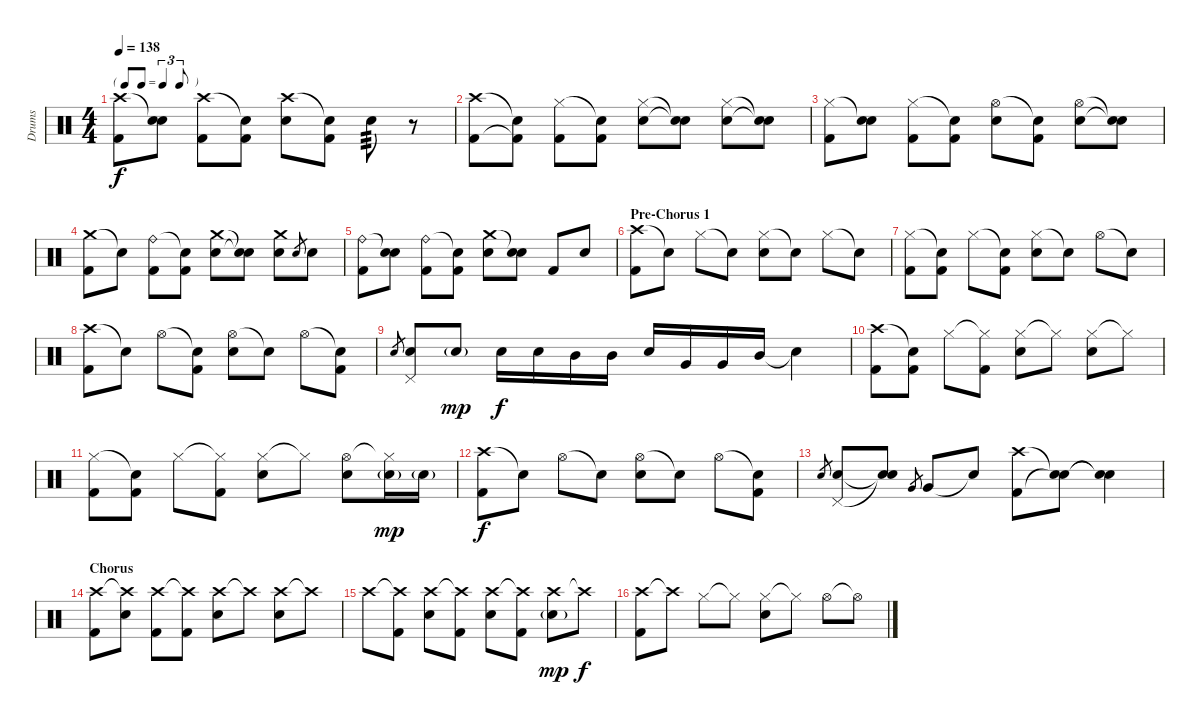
\track ("Drums" "Drums") {instrument percussion}
\staff {score}
\articulation defaults
\ts (4 4)
\tf triplet8th
\tempo 138
\clef neutral
\ks c
("Crash high (hit)" "Kick (hit) 2").8{dy f} ("Snare (hit)"{t} "Electric Snare (hit)").8 ("Crash high (hit)" "Kick (hit) 2").8 ("Snare (hit)"{t} "Kick (hit) 2").8 ("Crash high (hit)" "Electric Snare (hit)").8 ("Snare (hit)"{t} "Kick (hit) 2").8 "Electric Snare (hit)".8{tp 3} r.8 |
("Crash high (hit)" "Kick (hit) 2").8 ("Snare (hit)"{t} "Kick (hit) 2"{t}).8 ("Hi-Hat (closed)" "Kick (hit) 2").8 ("Snare (hit)"{t} "Kick (hit) 2").8 ("Hi-Hat (closed)" "Electric Snare (hit)").8 ("Snare (hit)"{t} "Snare (hit)"{t}).8 ("Hi-Hat (closed)" "Electric Snare (hit)").8 ("Snare (hit)"{t} "Snare (hit)"{t}).8 |
("Hi-Hat (closed)" "Kick (hit) 2").8 ("Snare (hit)"{t} "Electric Snare (hit)").8 ("Hi-Hat (closed)" "Kick (hit) 2").8 ("Snare (hit)"{t} "Kick (hit) 2").8 ("Hi-Hat (open)" "Electric Snare (hit)").8 ("Snare (hit)"{t} "Kick (hit) 2").8 ("Hi-Hat (open)" "Electric Snare (hit)").8 ("Snare (hit)"{t} "Snare (hit)"{t}).8 |
("Crash medium (hit)" "Kick (hit) 2").8 "Snare (hit)"{t}.8 ("Ride (bell)" "Kick (hit) 2").8 ("Snare (hit)"{t} "Kick (hit) 2").8 ("Crash medium (hit)" "Electric Snare (hit)").8 ("Snare (hit)"{t} "Snare (hit)"{t}).8 ("Crash medium (hit)" "Electric Snare (hit)").8 "Electric Snare (hit)".8{gr} "Electric Snare (hit)".8 |
("Ride (bell)" "Kick (hit) 2").8 ("Snare (hit)"{t} "Electric Snare (hit)").8 ("Ride (bell)" "Kick (hit) 2").8 ("Snare (hit)"{t} "Kick (hit) 2").8 ("Crash medium (hit)" "Electric Snare (hit)").8 ("Snare (hit)"{t} "Electric Snare (hit)").8 "Kick (hit) 2".8 "Electric Snare (hit)".8 |
\section ("" "Pre-Chorus 1")
("Crash high (hit)" "Kick (hit) 2").8 "Snare (hit)"{t}.8 "Hi-Hat (closed)".8 "Snare (hit)"{t}.8 ("Hi-Hat (closed)" "Electric Snare (hit)").8 "Snare (hit)"{t}.8 "Hi-Hat (closed)".8 "Snare (hit)"{t}.8 |
("Hi-Hat (closed)" "Kick (hit) 2").8 ("Snare (hit)"{t} "Kick (hit) 2").8 "Hi-Hat (closed)".8 ("Snare (hit)"{t} "Kick (hit) 2").8 ("Hi-Hat (closed)" "Electric Snare (hit)").8 "Snare (hit)"{t}.8 "Hi-Hat (open)".8 "Snare (hit)"{t}.8 |
("Crash high (hit)" "Kick (hit) 2").8 "Snare (hit)"{t}.8 "Hi-Hat (open)".8 ("Snare (hit)"{t} "Kick (hit) 2").8 ("Hi-Hat (open)" "Electric Snare (hit)").8 "Snare (hit)"{t}.8 "Hi-Hat (open)".8 ("Snare (hit)"{t} "Kick (hit) 2").8 |
"Electric Snare (hit)".8{gr} ("Pedal Hi-Hat (hit)" "Electric Snare (hit)").8 "Electric Snare (hit)"{g}.8{dy mp} "Electric Snare (hit)".16{dy f} "Electric Snare (hit)".16 "Mid Tom (hit)".16 "Mid Tom (hit)".16 "Electric Snare (hit)".16 "Very Low Tom (hit)".16 "Very Low Tom (hit)".16 "Mid Tom (hit)".16 "Snare (hit)"{t}.4 |
("Crash high (hit)" "Kick (hit) 2").8 ("Snare (hit)"{t} "Kick (hit) 2").8 "Hi-Hat (closed)".8 ("Hi-Hat (closed)"{t} "Kick (hit) 2").8 ("Hi-Hat (closed)" "Electric Snare (hit)").8 "Hi-Hat (closed)"{t}.8 ("Hi-Hat (closed)" "Electric Snare (hit)").8 "Hi-Hat (closed)"{t}.8 |
("Hi-Hat (closed)" "Kick (hit) 2").8 ("Snare (hit)"{t} "Kick (hit) 2").8 "Hi-Hat (closed)".8 ("Hi-Hat (closed)"{t} "Kick (hit) 2").8 ("Hi-Hat (closed)" "Electric Snare (hit)").8 "Hi-Hat (closed)"{t}.8 ("Hi-Hat (open)" "Electric Snare (hit)").8 ("Hi-Hat (closed)"{t} "Electric Snare (hit)"{g}).16{dy mp} "Electric Snare (hit)"{g}.16 |
("Crash high (hit)" "Kick (hit) 2").8{dy f} "Snare (hit)"{t}.8 "Hi-Hat (open)".8 "Snare (hit)"{t}.8 ("Hi-Hat (open)" "Electric Snare (hit)").8 "Snare (hit)"{t}.8 "Hi-Hat (open)".8 ("Snare (hit)"{t} "Kick (hit) 2").8 |
"Electric Snare (hit)".8{gr} ("Pedal Hi-Hat (hit)" "Electric Snare (hit)").8 ("Snare (hit)"{t} "Snare (hit)"{t}).8 "Very Low Tom (hit)".8{gr} "Very Low Tom (hit)".8 "Snare (hit)"{t}.8 ("Crash high (hit)" "Kick (hit) 2").8 ("Snare (hit)"{t} "Snare (hit)"{t}).8 ("Snare (hit)"{t} "Snare (hit)"{t}).4 |
\section ("" "Chorus")
("Crash high (hit)" "Kick (hit) 2").8 ("Crash high (hit)"{t} "Electric Snare (hit)").8 ("Crash high (hit)" "Kick (hit) 2").8 ("Crash high (hit)"{t} "Kick (hit) 2").8 ("Crash high (hit)" "Electric Snare (hit)").8 "Crash high (hit)"{t}.8 ("Crash high (hit)" "Electric Snare (hit)").8 "Crash high (hit)"{t}.8 |
"Crash high (hit)".8 ("Crash high (hit)"{t} "Kick (hit) 2").8 ("Crash high (hit)" "Electric Snare (hit)").8 ("Crash high (hit)"{t} "Kick (hit) 2").8 ("Crash high (hit)" "Electric Snare (hit)").8 ("Crash high (hit)"{t} "Kick (hit) 2").8 ("Crash high (hit)" "Electric Snare (hit)"{g}).8{dy mp} "Crash high (hit)"{t}.8{dy f} |
("Crash high (hit)" "Kick (hit) 2").8 "Crash high (hit)"{t}.8 "Hi-Hat (closed)".8 "Hi-Hat (closed)"{t}.8 ("Hi-Hat (closed)" "Electric Snare (hit)").8 "Hi-Hat (closed)"{t}.8 "Hi-Hat (open)".8 "Hi-Hat (open)"{t}.8
